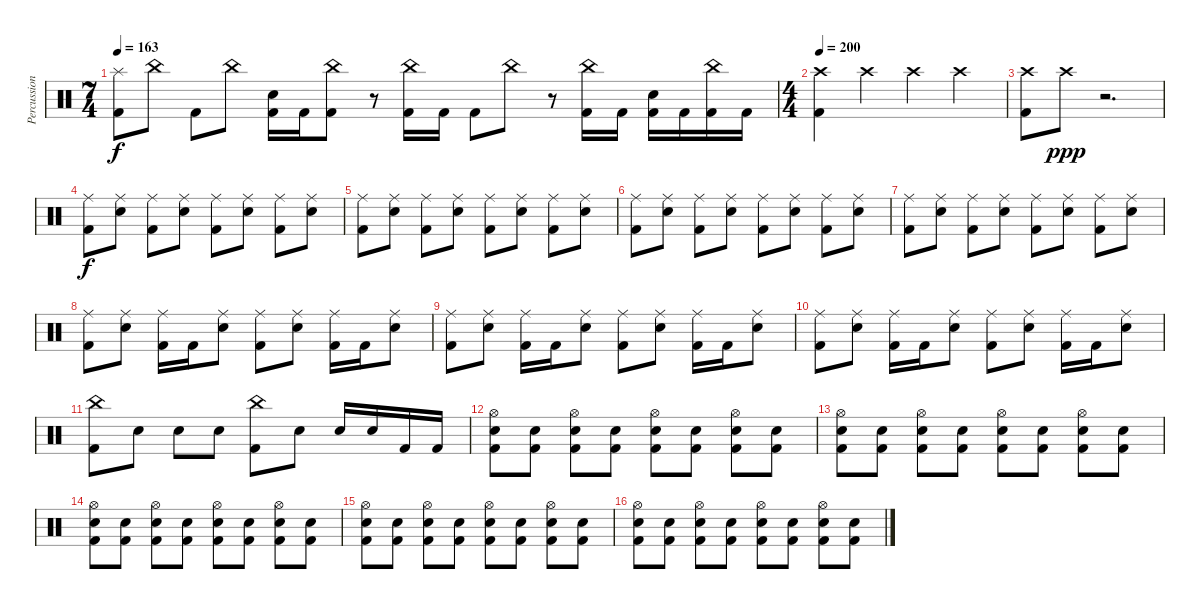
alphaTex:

\track ("Percussion" "Percussion") {instrument percussion}
\staff {score}
\articulation defaults
\ts (7 4)
\tempo 163
\clef neutral
\ks c
("Splash (hit)" "Kick (hit) 2").8{dy f} "China (hit)".8 "Kick (hit) 2".8 "China (hit)".8 ("Electric Snare (hit)" "Kick (hit) 2").16 "Kick (hit) 2".16 ("China (hit)" "Kick (hit) 2").8 r.8 ("China (hit)" "Kick (hit) 2").16 "Kick (hit) 2".16 "Kick (hit) 2".8 "China (hit)".8 r.8 ("China (hit)" "Kick (hit) 2").16 "Kick (hit) 2".16 ("Electric Snare (hit)" "Kick (hit) 2").16 "Kick (hit) 2".16 ("China (hit)" "Kick (hit) 2").16 "Kick (hit) 2".16 |
\ts (4 4)
\tempo 200
("Crash high (hit)" "Kick (hit) 2").4 "Crash high (hit)".4 "Crash high (hit)".4 "Crash high (hit)".4 |
("Crash high (hit)" "Kick (hit) 2").8 "Crash high (hit)".8{dy ppp} r.2{d} |
("Ride (middle)" "Kick (hit) 2").8{dy f} ("Ride (middle)" "Electric Snare (hit)").8 ("Ride (middle)" "Kick (hit) 2").8 ("Ride (middle)" "Electric Snare (hit)").8 ("Ride (middle)" "Kick (hit) 2").8 ("Ride (middle)" "Electric Snare (hit)").8 ("Ride (middle)" "Kick (hit) 2").8 ("Ride (middle)" "Electric Snare (hit)").8 |
("Ride (middle)" "Kick (hit) 2").8 ("Ride (middle)" "Electric Snare (hit)").8 ("Ride (middle)" "Kick (hit) 2").8 ("Ride (middle)" "Electric Snare (hit)").8 ("Ride (middle)" "Kick (hit) 2").8 ("Ride (middle)" "Electric Snare (hit)").8 ("Ride (middle)" "Kick (hit) 2").8 ("Ride (middle)" "Electric Snare (hit)").8 |
("Ride (middle)" "Kick (hit) 2").8 ("Ride (middle)" "Electric Snare (hit)").8 ("Ride (middle)" "Kick (hit) 2").8 ("Ride (middle)" "Electric Snare (hit)").8 ("Ride (middle)" "Kick (hit) 2").8 ("Ride (middle)" "Electric Snare (hit)").8 ("Ride (middle)" "Kick (hit) 2").8 ("Ride (middle)" "Electric Snare (hit)").8 |
("Ride (middle)" "Kick (hit) 2").8 ("Ride (middle)" "Electric Snare (hit)").8 ("Ride (middle)" "Kick (hit) 2").8 ("Ride (middle)" "Electric Snare (hit)").8 ("Ride (middle)" "Kick (hit) 2").8 ("Ride (middle)" "Electric Snare (hit)").8 ("Ride (middle)" "Kick (hit) 2").8 ("Ride (middle)" "Electric Snare (hit)").8 |
("Ride (middle)" "Kick (hit) 2").8 ("Ride (middle)" "Electric Snare (hit)").8 ("Ride (middle)" "Kick (hit) 2").16 "Kick (hit) 2".16 ("Ride (middle)" "Electric Snare (hit)").8 ("Ride (middle)" "Kick (hit) 2").8 ("Ride (middle)" "Electric Snare (hit)").8 ("Ride (middle)" "Kick (hit) 2").16 "Kick (hit) 2".16 ("Ride (middle)" "Electric Snare (hit)").8 |
("Ride (middle)" "Kick (hit) 2").8 ("Ride (middle)" "Electric Snare (hit)").8 ("Ride (middle)" "Kick (hit) 2").16 "Kick (hit) 2".16 ("Ride (middle)" "Electric Snare (hit)").8 ("Ride (middle)" "Kick (hit) 2").8 ("Ride (middle)" "Electric Snare (hit)").8 ("Ride (middle)" "Kick (hit) 2").16 "Kick (hit) 2".16 ("Ride (middle)" "Electric Snare (hit)").8 |
("Ride (middle)" "Kick (hit) 2").8 ("Ride (middle)" "Electric Snare (hit)").8 ("Ride (middle)" "Kick (hit) 2").16 "Kick (hit) 2".16 ("Ride (middle)" "Electric Snare (hit)").8 ("Ride (middle)" "Kick (hit) 2").8 ("Ride (middle)" "Electric Snare (hit)").8 ("Ride (middle)" "Kick (hit) 2").16 "Kick (hit) 2".16 ("Ride (middle)" "Electric Snare (hit)").8 |
("China (hit)" "Kick (hit) 2").8 "Electric Snare (hit)".8 "Electric Snare (hit)".8 "Electric Snare (hit)".8 ("China (hit)" "Kick (hit) 2").8 "Electric Snare (hit)".8 "Electric Snare (hit)".16 "Electric Snare (hit)".16 "Kick (hit) 2".16 "Kick (hit) 2".16 |
("Hi-Hat (open)" "Electric Snare (hit)" "Kick (hit) 2").8 ("Electric Snare (hit)" "Kick (hit) 2").8 ("Hi-Hat (open)" "Electric Snare (hit)" "Kick (hit) 2").8 ("Electric Snare (hit)" "Kick (hit) 2").8 ("Hi-Hat (open)" "Electric Snare (hit)" "Kick (hit) 2").8 ("Electric Snare (hit)" "Kick (hit) 2").8 ("Hi-Hat (open)" "Electric Snare (hit)" "Kick (hit) 2").8 ("Electric Snare (hit)" "Kick (hit) 2").8 |
("Hi-Hat (open)" "Electric Snare (hit)" "Kick (hit) 2").8 ("Electric Snare (hit)" "Kick (hit) 2").8 ("Hi-Hat (open)" "Electric Snare (hit)" "Kick (hit) 2").8 ("Electric Snare (hit)" "Kick (hit) 2").8 ("Hi-Hat (open)" "Electric Snare (hit)" "Kick (hit) 2").8 ("Electric Snare (hit)" "Kick (hit) 2").8 ("Hi-Hat (open)" "Electric Snare (hit)" "Kick (hit) 2").8 ("Electric Snare (hit)" "Kick (hit) 2").8 |
("Hi-Hat (open)" "Electric Snare (hit)" "Kick (hit) 2").8 ("Electric Snare (hit)" "Kick (hit) 2").8 ("Hi-Hat (open)" "Electric Snare (hit)" "Kick (hit) 2").8 ("Electric Snare (hit)" "Kick (hit) 2").8 ("Hi-Hat (open)" "Electric Snare (hit)" "Kick (hit) 2").8 ("Electric Snare (hit)" "Kick (hit) 2").8 ("Hi-Hat (open)" "Electric Snare (hit)" "Kick (hit) 2").8 ("Electric Snare (hit)" "Kick (hit) 2").8 |
("Hi-Hat (open)" "Electric Snare (hit)" "Kick (hit) 2").8 ("Electric Snare (hit)" "Kick (hit) 2").8 ("Hi-Hat (open)" "Electric Snare (hit)" "Kick (hit) 2").8 ("Electric Snare (hit)" "Kick (hit) 2").8 ("Hi-Hat (open)" "Electric Snare (hit)" "Kick (hit) 2").8 ("Electric Snare (hit)" "Kick (hit) 2").8 ("Hi-Hat (open)" "Electric Snare (hit)" "Kick (hit) 2").8 ("Electric Snare (hit)" "Kick (hit) 2").8 |
("Hi-Hat (open)" "Electric Snare (hit)" "Kick (hit) 2").8 ("Electric Snare (hit)" "Kick (hit) 2").8 ("Hi-Hat (open)" "Electric Snare (hit)" "Kick (hit) 2").8 ("Electric Snare (hit)" "Kick (hit) 2").8 ("Hi-Hat (open)" "Electric Snare (hit)" "Kick (hit) 2").8 ("Electric Snare (hit)" "Kick (hit) 2").8 ("Hi-Hat (open)" "Electric Snare (hit)" "Kick (hit) 2").8 ("Electric Snare (hit)" "Kick (hit) 2").8
